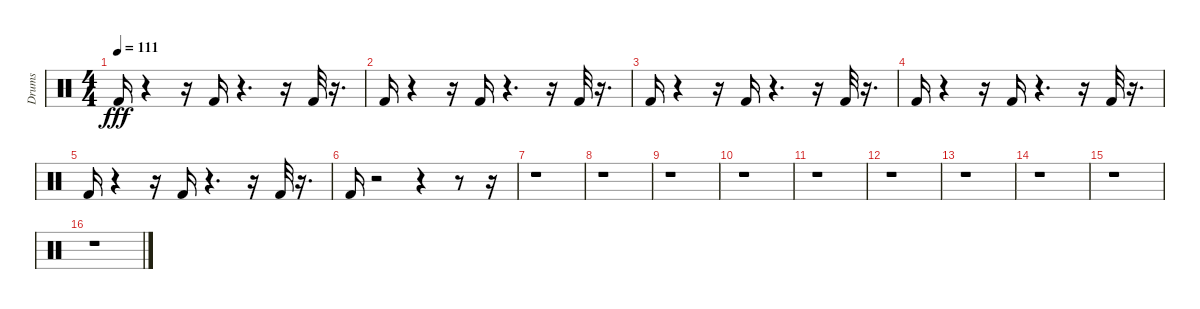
\track ("Drums" "Drums") {instrument percussion}
\staff {score}
\articulation defaults
\ts (4 4)
\tempo 111
\clef neutral
\ks c "Kick (hit) 2".16{dy fff}
r.4 r.16 "Kick (hit) 2".16 r.4{d} r.16 "Kick (hit) 2".32 r.16{d} |
"Kick (hit) 2".16 r.4 r.16 "Kick (hit) 2".16 r.4{d} r.16 "Kick (hit) 2".32 r.16{d} |
"Kick (hit) 2".16 r.4 r.16 "Kick (hit) 2".16 r.4{d} r.16 "Kick (hit) 2".32 r.16{d} |
"Kick (hit) 2".16 r.4 r.16 "Kick (hit) 2".16 r.4{d} r.16 "Kick (hit) 2".32 r.16{d} |
"Kick (hit) 2".16 r.4 r.16 "Kick (hit) 2".16 r.4{d} r.16 "Kick (hit) 2".32 r.16{d} |
"Kick (hit) 2".16 r.2 r.4 r.8 r.16 |
r.1 |
r.1 |
r.1 |
r.1 |
r.1 |
r.1 |
r.1 |
r.1 |
r.1 |
r.1
